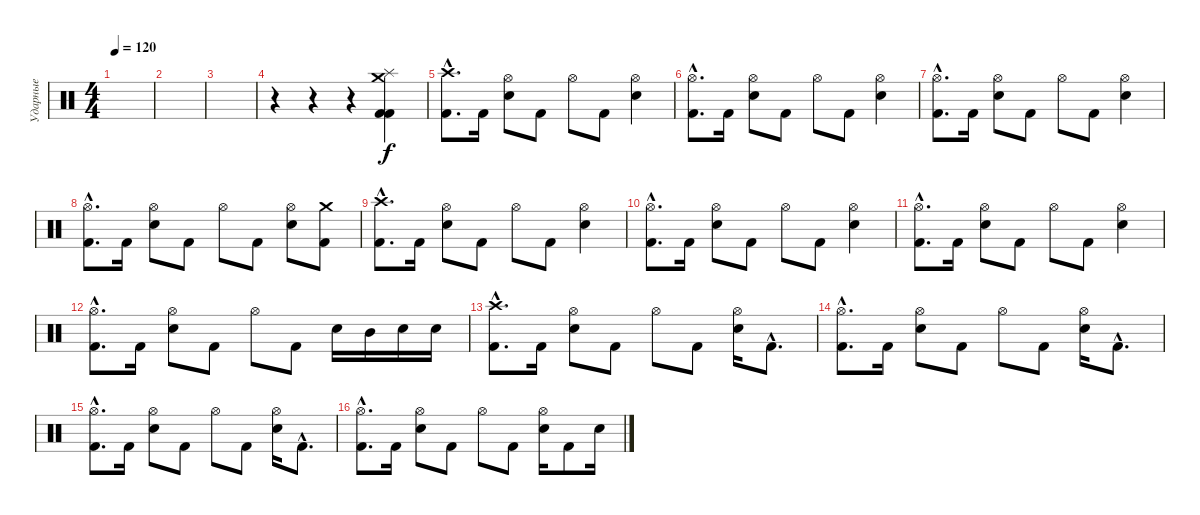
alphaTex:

\track ("Ударные" "Ударные") {instrument percussion}
\staff {score}
\articulation defaults
\ts (4 4)
\tempo 120
\clef neutral
\ks c
|
|
|
r.4 r.4 r.4 ("Crash medium (hit)" "Splash (hit)" "Kick (hit) 2" "Kick (hit) 2").4 |
("Crash high (hit)"{hac} "Kick (hit) 2"{hac}).8{d} "Kick (hit) 2".16 ("Hi-Hat (open)" "Electric Snare (hit)").8 "Kick (hit) 2".8 "Hi-Hat (open)".8 "Kick (hit) 2".8 ("Hi-Hat (open)" "Electric Snare (hit)").4 |
("Hi-Hat (open)"{hac} "Kick (hit) 2"{hac}).8{d} "Kick (hit) 2".16 ("Hi-Hat (open)" "Electric Snare (hit)").8 "Kick (hit) 2".8 "Hi-Hat (open)".8 "Kick (hit) 2".8 ("Hi-Hat (open)" "Electric Snare (hit)").4 |
("Hi-Hat (open)"{hac} "Kick (hit) 2"{hac}).8{d} "Kick (hit) 2".16 ("Hi-Hat (open)" "Electric Snare (hit)").8 "Kick (hit) 2".8 "Hi-Hat (open)".8 "Kick (hit) 2".8 ("Hi-Hat (open)" "Electric Snare (hit)").4 |
("Hi-Hat (open)"{hac} "Kick (hit) 2"{hac}).8{d} "Kick (hit) 2".16 ("Hi-Hat (open)" "Electric Snare (hit)").8 "Kick (hit) 2".8 "Hi-Hat (open)".8 "Kick (hit) 2".8 ("Hi-Hat (open)" "Electric Snare (hit)").8 ("Crash medium (hit)" "Kick (hit) 2").8 |
("Crash high (hit)"{hac} "Kick (hit) 2"{hac}).8{d} "Kick (hit) 2".16 ("Hi-Hat (open)" "Electric Snare (hit)").8 "Kick (hit) 2".8 "Hi-Hat (open)".8 "Kick (hit) 2".8 ("Hi-Hat (open)" "Electric Snare (hit)").4 |
("Hi-Hat (open)"{hac} "Kick (hit) 2"{hac}).8{d} "Kick (hit) 2".16 ("Hi-Hat (open)" "Electric Snare (hit)").8 "Kick (hit) 2".8 "Hi-Hat (open)".8 "Kick (hit) 2".8 ("Hi-Hat (open)" "Electric Snare (hit)").4 |
("Hi-Hat (open)"{hac} "Kick (hit) 2"{hac}).8{d} "Kick (hit) 2".16 ("Hi-Hat (open)" "Electric Snare (hit)").8 "Kick (hit) 2".8 "Hi-Hat (open)".8 "Kick (hit) 2".8 ("Hi-Hat (open)" "Electric Snare (hit)").4 |
("Hi-Hat (open)"{hac} "Kick (hit) 2"{hac}).8{d} "Kick (hit) 2".16 ("Hi-Hat (open)" "Electric Snare (hit)").8 "Kick (hit) 2".8 "Hi-Hat (open)".8 "Kick (hit) 2".8 "Electric Snare (hit)".16 "Mid Tom (hit)".16 "Electric Snare (hit)".16 "Electric Snare (hit)".16 |
("Crash high (hit)"{hac} "Kick (hit) 2"{hac}).8{d} "Kick (hit) 2".16 ("Hi-Hat (open)" "Electric Snare (hit)").8 "Kick (hit) 2".8 "Hi-Hat (open)".8 "Kick (hit) 2".8 ("Hi-Hat (open)" "Electric Snare (hit)").16 "Kick (hit) 2"{hac}.8{d} |
("Hi-Hat (open)"{hac} "Kick (hit) 2"{hac}).8{d} "Kick (hit) 2".16 ("Hi-Hat (open)" "Electric Snare (hit)").8 "Kick (hit) 2".8 "Hi-Hat (open)".8 "Kick (hit) 2".8 ("Hi-Hat (open)" "Electric Snare (hit)").16 "Kick (hit) 2"{hac}.8{d} |
("Hi-Hat (open)"{hac} "Kick (hit) 2"{hac}).8{d} "Kick (hit) 2".16 ("Hi-Hat (open)" "Electric Snare (hit)").8 "Kick (hit) 2".8 "Hi-Hat (open)".8 "Kick (hit) 2".8 ("Hi-Hat (open)" "Electric Snare (hit)").16 "Kick (hit) 2"{hac}.8{d} |
("Hi-Hat (open)"{hac} "Kick (hit) 2"{hac}).8{d} "Kick (hit) 2".16 ("Hi-Hat (open)" "Electric Snare (hit)").8 "Kick (hit) 2".8 "Hi-Hat (open)".8 "Kick (hit) 2".8 ("Hi-Hat (open)" "Electric Snare (hit)").16 "Kick (hit) 2".8 "Electric Snare (hit)".16
